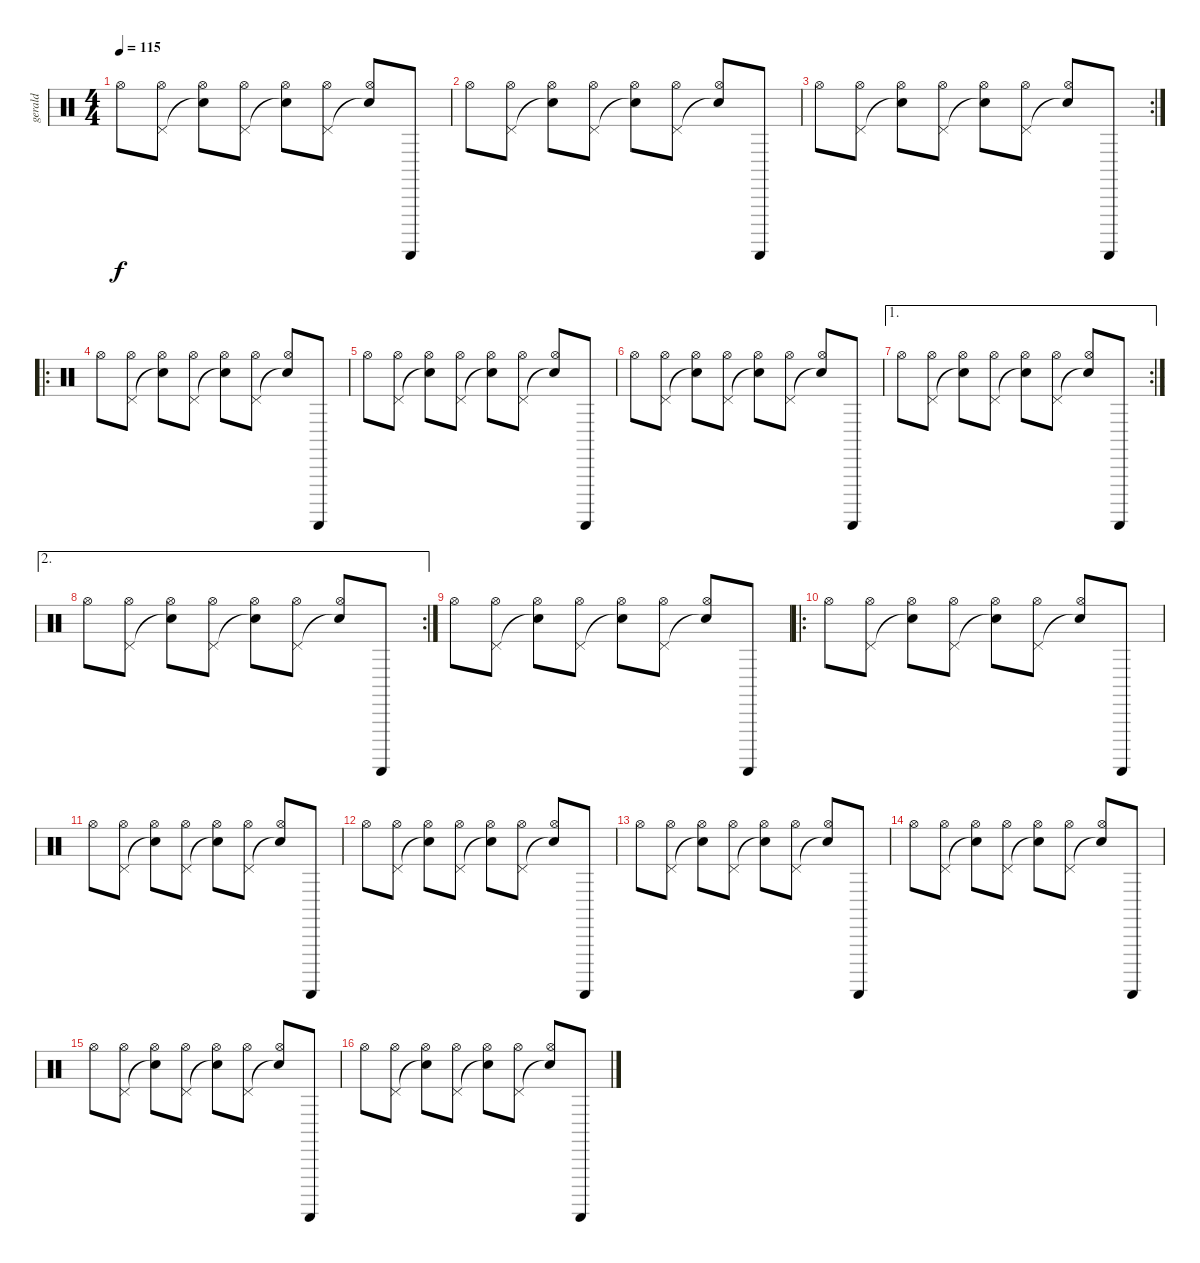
\track ("gerald" "gerald") {instrument percussion}
\staff {score}
\articulation defaults
\ts (4 4)
\tempo 115
\clef neutral
\ks c "Hi-Hat (open)".8{dy f}
("Pedal Hi-Hat (hit)" "Hi-Hat (open)").8 ("Snare (hit)"{t} "Hi-Hat (open)").8 ("Pedal Hi-Hat (hit)" "Hi-Hat (open)").8 ("Snare (hit)"{t} "Hi-Hat (open)").8 ("Pedal Hi-Hat (hit)" "Hi-Hat (open)").8 ("Snare (hit)"{t} "Hi-Hat (open)").8 "Guiro (scrap-return)".8 |
"Hi-Hat (open)".8 ("Pedal Hi-Hat (hit)" "Hi-Hat (open)").8 ("Snare (hit)"{t} "Hi-Hat (open)").8 ("Pedal Hi-Hat (hit)" "Hi-Hat (open)").8 ("Snare (hit)"{t} "Hi-Hat (open)").8 ("Pedal Hi-Hat (hit)" "Hi-Hat (open)").8 ("Snare (hit)"{t} "Hi-Hat (open)").8 "Guiro (scrap-return)".8 |
\rc 2 "Hi-Hat (open)".8
("Pedal Hi-Hat (hit)" "Hi-Hat (open)").8 ("Snare (hit)"{t} "Hi-Hat (open)").8 ("Pedal Hi-Hat (hit)" "Hi-Hat (open)").8 ("Snare (hit)"{t} "Hi-Hat (open)").8 ("Pedal Hi-Hat (hit)" "Hi-Hat (open)").8 ("Snare (hit)"{t} "Hi-Hat (open)").8 "Guiro (scrap-return)".8 |
\ro "Hi-Hat (open)".8
("Pedal Hi-Hat (hit)" "Hi-Hat (open)").8 ("Snare (hit)"{t} "Hi-Hat (open)").8 ("Pedal Hi-Hat (hit)" "Hi-Hat (open)").8 ("Snare (hit)"{t} "Hi-Hat (open)").8 ("Pedal Hi-Hat (hit)" "Hi-Hat (open)").8 ("Snare (hit)"{t} "Hi-Hat (open)").8 "Guiro (scrap-return)".8 |
"Hi-Hat (open)".8 ("Pedal Hi-Hat (hit)" "Hi-Hat (open)").8 ("Snare (hit)"{t} "Hi-Hat (open)").8 ("Pedal Hi-Hat (hit)" "Hi-Hat (open)").8 ("Snare (hit)"{t} "Hi-Hat (open)").8 ("Pedal Hi-Hat (hit)" "Hi-Hat (open)").8 ("Snare (hit)"{t} "Hi-Hat (open)").8 "Guiro (scrap-return)".8 |
"Hi-Hat (open)".8 ("Pedal Hi-Hat (hit)" "Hi-Hat (open)").8 ("Snare (hit)"{t} "Hi-Hat (open)").8 ("Pedal Hi-Hat (hit)" "Hi-Hat (open)").8 ("Snare (hit)"{t} "Hi-Hat (open)").8 ("Pedal Hi-Hat (hit)" "Hi-Hat (open)").8 ("Snare (hit)"{t} "Hi-Hat (open)").8 "Guiro (scrap-return)".8 |
\ae 1
\rc 2 "Hi-Hat (open)".8
("Pedal Hi-Hat (hit)" "Hi-Hat (open)").8 ("Snare (hit)"{t} "Hi-Hat (open)").8 ("Pedal Hi-Hat (hit)" "Hi-Hat (open)").8 ("Snare (hit)"{t} "Hi-Hat (open)").8 ("Pedal Hi-Hat (hit)" "Hi-Hat (open)").8 ("Snare (hit)"{t} "Hi-Hat (open)").8 "Guiro (scrap-return)".8 |
\ae 2
\rc 2 "Hi-Hat (open)".8
("Pedal Hi-Hat (hit)" "Hi-Hat (open)").8 ("Snare (hit)"{t} "Hi-Hat (open)").8 ("Pedal Hi-Hat (hit)" "Hi-Hat (open)").8 ("Snare (hit)"{t} "Hi-Hat (open)").8 ("Pedal Hi-Hat (hit)" "Hi-Hat (open)").8 ("Snare (hit)"{t} "Hi-Hat (open)").8 "Guiro (scrap-return)".8 |
"Hi-Hat (open)".8 ("Pedal Hi-Hat (hit)" "Hi-Hat (open)").8 ("Snare (hit)"{t} "Hi-Hat (open)").8 ("Pedal Hi-Hat (hit)" "Hi-Hat (open)").8 ("Snare (hit)"{t} "Hi-Hat (open)").8 ("Pedal Hi-Hat (hit)" "Hi-Hat (open)").8 ("Snare (hit)"{t} "Hi-Hat (open)").8 "Guiro (scrap-return)".8 |
\ro "Hi-Hat (open)".8
("Pedal Hi-Hat (hit)" "Hi-Hat (open)").8 ("Snare (hit)"{t} "Hi-Hat (open)").8 ("Pedal Hi-Hat (hit)" "Hi-Hat (open)").8 ("Snare (hit)"{t} "Hi-Hat (open)").8 ("Pedal Hi-Hat (hit)" "Hi-Hat (open)").8 ("Snare (hit)"{t} "Hi-Hat (open)").8 "Guiro (scrap-return)".8 |
"Hi-Hat (open)".8 ("Pedal Hi-Hat (hit)" "Hi-Hat (open)").8 ("Snare (hit)"{t} "Hi-Hat (open)").8 ("Pedal Hi-Hat (hit)" "Hi-Hat (open)").8 ("Snare (hit)"{t} "Hi-Hat (open)").8 ("Pedal Hi-Hat (hit)" "Hi-Hat (open)").8 ("Snare (hit)"{t} "Hi-Hat (open)").8 "Guiro (scrap-return)".8 |
"Hi-Hat (open)".8 ("Pedal Hi-Hat (hit)" "Hi-Hat (open)").8 ("Snare (hit)"{t} "Hi-Hat (open)").8 ("Pedal Hi-Hat (hit)" "Hi-Hat (open)").8 ("Snare (hit)"{t} "Hi-Hat (open)").8 ("Pedal Hi-Hat (hit)" "Hi-Hat (open)").8 ("Snare (hit)"{t} "Hi-Hat (open)").8 "Guiro (scrap-return)".8 |
"Hi-Hat (open)".8 ("Pedal Hi-Hat (hit)" "Hi-Hat (open)").8 ("Snare (hit)"{t} "Hi-Hat (open)").8 ("Pedal Hi-Hat (hit)" "Hi-Hat (open)").8 ("Snare (hit)"{t} "Hi-Hat (open)").8 ("Pedal Hi-Hat (hit)" "Hi-Hat (open)").8 ("Snare (hit)"{t} "Hi-Hat (open)").8 "Guiro (scrap-return)".8 |
"Hi-Hat (open)".8 ("Pedal Hi-Hat (hit)" "Hi-Hat (open)").8 ("Snare (hit)"{t} "Hi-Hat (open)").8 ("Pedal Hi-Hat (hit)" "Hi-Hat (open)").8 ("Snare (hit)"{t} "Hi-Hat (open)").8 ("Pedal Hi-Hat (hit)" "Hi-Hat (open)").8 ("Snare (hit)"{t} "Hi-Hat (open)").8 "Guiro (scrap-return)".8 |
"Hi-Hat (open)".8 ("Pedal Hi-Hat (hit)" "Hi-Hat (open)").8 ("Snare (hit)"{t} "Hi-Hat (open)").8 ("Pedal Hi-Hat (hit)" "Hi-Hat (open)").8 ("Snare (hit)"{t} "Hi-Hat (open)").8 ("Pedal Hi-Hat (hit)" "Hi-Hat (open)").8 ("Snare (hit)"{t} "Hi-Hat (open)").8 "Guiro (scrap-return)".8 |
"Hi-Hat (open)".8 ("Pedal Hi-Hat (hit)" "Hi-Hat (open)").8 ("Snare (hit)"{t} "Hi-Hat (open)").8 ("Pedal Hi-Hat (hit)" "Hi-Hat (open)").8 ("Snare (hit)"{t} "Hi-Hat (open)").8 ("Pedal Hi-Hat (hit)" "Hi-Hat (open)").8 ("Snare (hit)"{t} "Hi-Hat (open)").8 "Guiro (scrap-return)".8
